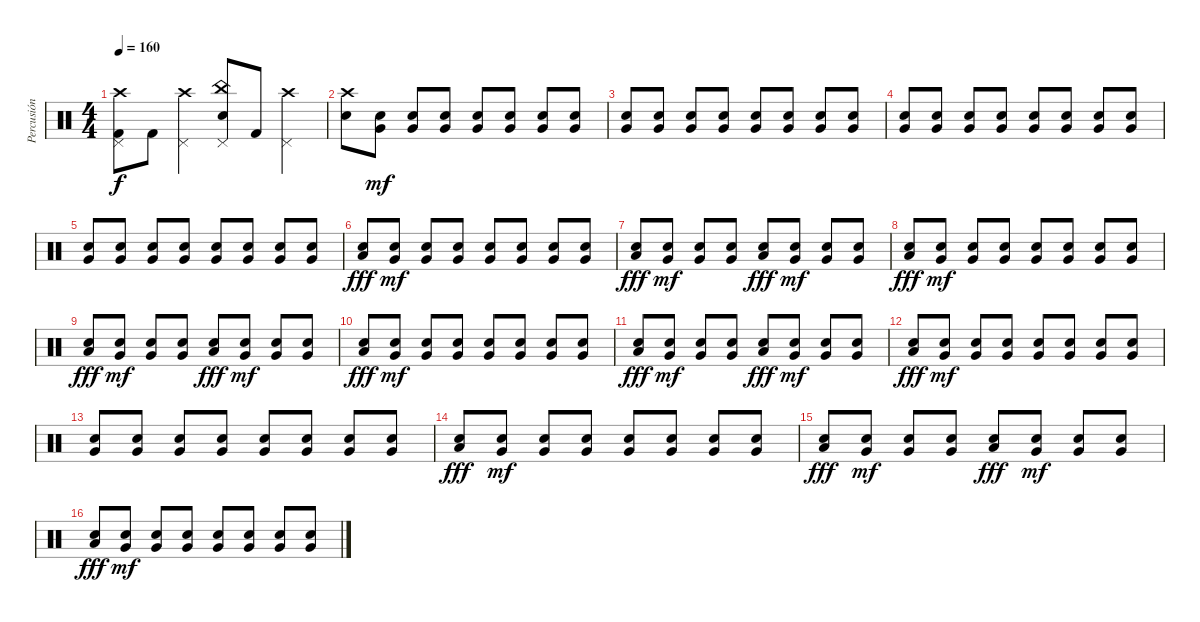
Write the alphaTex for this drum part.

\track ("Percusión" "Percusión") {instrument percussion}
\staff {score}
\articulation defaults
\ts (4 4)
\tempo 160
\clef neutral
\ks c
("Crash high (hit)" "Pedal Hi-Hat (hit)" "Kick (hit) 2").8{dy f} "Kick (hit) 2".8 ("Crash high (hit)" "Pedal Hi-Hat (hit)").4 ("China (hit)" "Snare (hit) 2" "Pedal Hi-Hat (hit)").8 "Kick (hit) 2".8 ("Crash high (hit)" "Pedal Hi-Hat (hit)").4 |
("Crash high (hit)" "Snare (hit) 2").8 ("Snare (hit) 2" "Very Low Tom (hit)").8{dy mf} ("Snare (hit) 2" "Very Low Tom (hit)").8 ("Snare (hit) 2" "Very Low Tom (hit)").8 ("Snare (hit) 2" "Very Low Tom (hit)").8 ("Snare (hit) 2" "Very Low Tom (hit)").8 ("Snare (hit) 2" "Very Low Tom (hit)").8 ("Snare (hit) 2" "Very Low Tom (hit)").8 |
("Snare (hit) 2" "Very Low Tom (hit)").8 ("Snare (hit) 2" "Very Low Tom (hit)").8 ("Snare (hit) 2" "Very Low Tom (hit)").8 ("Snare (hit) 2" "Very Low Tom (hit)").8 ("Snare (hit) 2" "Very Low Tom (hit)").8 ("Snare (hit) 2" "Very Low Tom (hit)").8 ("Snare (hit) 2" "Very Low Tom (hit)").8 ("Snare (hit) 2" "Very Low Tom (hit)").8 |
("Snare (hit) 2" "Very Low Tom (hit)").8 ("Snare (hit) 2" "Very Low Tom (hit)").8 ("Snare (hit) 2" "Very Low Tom (hit)").8 ("Snare (hit) 2" "Very Low Tom (hit)").8 ("Snare (hit) 2" "Very Low Tom (hit)").8 ("Snare (hit) 2" "Very Low Tom (hit)").8 ("Snare (hit) 2" "Very Low Tom (hit)").8 ("Snare (hit) 2" "Very Low Tom (hit)").8 |
("Snare (hit) 2" "Very Low Tom (hit)").8 ("Snare (hit) 2" "Very Low Tom (hit)").8 ("Snare (hit) 2" "Very Low Tom (hit)").8 ("Snare (hit) 2" "Very Low Tom (hit)").8 ("Snare (hit) 2" "Very Low Tom (hit)").8 ("Snare (hit) 2" "Very Low Tom (hit)").8 ("Snare (hit) 2" "Very Low Tom (hit)").8 ("Snare (hit) 2" "Very Low Tom (hit)").8 |
("Snare (hit) 2" "Low Floor Tom (hit)").8{dy fff} ("Snare (hit) 2" "Very Low Tom (hit)").8{dy mf} ("Snare (hit) 2" "Very Low Tom (hit)").8 ("Snare (hit) 2" "Very Low Tom (hit)").8 ("Snare (hit) 2" "Very Low Tom (hit)").8 ("Snare (hit) 2" "Very Low Tom (hit)").8 ("Snare (hit) 2" "Very Low Tom (hit)").8 ("Snare (hit) 2" "Very Low Tom (hit)").8 |
("Snare (hit) 2" "Low Floor Tom (hit)").8{dy fff} ("Snare (hit) 2" "Very Low Tom (hit)").8{dy mf} ("Snare (hit) 2" "Very Low Tom (hit)").8 ("Snare (hit) 2" "Very Low Tom (hit)").8 ("Snare (hit) 2" "Low Floor Tom (hit)").8{dy fff} ("Snare (hit) 2" "Very Low Tom (hit)").8{dy mf} ("Snare (hit) 2" "Very Low Tom (hit)").8 ("Snare (hit) 2" "Very Low Tom (hit)").8 |
("Snare (hit) 2" "Low Floor Tom (hit)").8{dy fff} ("Snare (hit) 2" "Very Low Tom (hit)").8{dy mf} ("Snare (hit) 2" "Very Low Tom (hit)").8 ("Snare (hit) 2" "Very Low Tom (hit)").8 ("Snare (hit) 2" "Very Low Tom (hit)").8 ("Snare (hit) 2" "Very Low Tom (hit)").8 ("Snare (hit) 2" "Very Low Tom (hit)").8 ("Snare (hit) 2" "Very Low Tom (hit)").8 |
("Snare (hit) 2" "Low Floor Tom (hit)").8{dy fff} ("Snare (hit) 2" "Very Low Tom (hit)").8{dy mf} ("Snare (hit) 2" "Very Low Tom (hit)").8 ("Snare (hit) 2" "Very Low Tom (hit)").8 ("Snare (hit) 2" "Low Floor Tom (hit)").8{dy fff} ("Snare (hit) 2" "Very Low Tom (hit)").8{dy mf} ("Snare (hit) 2" "Very Low Tom (hit)").8 ("Snare (hit) 2" "Very Low Tom (hit)").8 |
("Snare (hit) 2" "Low Floor Tom (hit)").8{dy fff} ("Snare (hit) 2" "Very Low Tom (hit)").8{dy mf} ("Snare (hit) 2" "Very Low Tom (hit)").8 ("Snare (hit) 2" "Very Low Tom (hit)").8 ("Snare (hit) 2" "Very Low Tom (hit)").8 ("Snare (hit) 2" "Very Low Tom (hit)").8 ("Snare (hit) 2" "Very Low Tom (hit)").8 ("Snare (hit) 2" "Very Low Tom (hit)").8 |
("Snare (hit) 2" "Low Floor Tom (hit)").8{dy fff} ("Snare (hit) 2" "Very Low Tom (hit)").8{dy mf} ("Snare (hit) 2" "Very Low Tom (hit)").8 ("Snare (hit) 2" "Very Low Tom (hit)").8 ("Snare (hit) 2" "Low Floor Tom (hit)").8{dy fff} ("Snare (hit) 2" "Very Low Tom (hit)").8{dy mf} ("Snare (hit) 2" "Very Low Tom (hit)").8 ("Snare (hit) 2" "Very Low Tom (hit)").8 |
("Snare (hit) 2" "Low Floor Tom (hit)").8{dy fff} ("Snare (hit) 2" "Very Low Tom (hit)").8{dy mf} ("Snare (hit) 2" "Very Low Tom (hit)").8 ("Snare (hit) 2" "Very Low Tom (hit)").8 ("Snare (hit) 2" "Very Low Tom (hit)").8 ("Snare (hit) 2" "Very Low Tom (hit)").8 ("Snare (hit) 2" "Very Low Tom (hit)").8 ("Snare (hit) 2" "Very Low Tom (hit)").8 |
("Snare (hit) 2" "Very Low Tom (hit)").8 ("Snare (hit) 2" "Very Low Tom (hit)").8 ("Snare (hit) 2" "Very Low Tom (hit)").8 ("Snare (hit) 2" "Very Low Tom (hit)").8 ("Snare (hit) 2" "Very Low Tom (hit)").8 ("Snare (hit) 2" "Very Low Tom (hit)").8 ("Snare (hit) 2" "Very Low Tom (hit)").8 ("Snare (hit) 2" "Very Low Tom (hit)").8 |
("Snare (hit) 2" "Low Floor Tom (hit)").8{dy fff} ("Snare (hit) 2" "Very Low Tom (hit)").8{dy mf} ("Snare (hit) 2" "Very Low Tom (hit)").8 ("Snare (hit) 2" "Very Low Tom (hit)").8 ("Snare (hit) 2" "Very Low Tom (hit)").8 ("Snare (hit) 2" "Very Low Tom (hit)").8 ("Snare (hit) 2" "Very Low Tom (hit)").8 ("Snare (hit) 2" "Very Low Tom (hit)").8 |
("Snare (hit) 2" "Low Floor Tom (hit)").8{dy fff} ("Snare (hit) 2" "Very Low Tom (hit)").8{dy mf} ("Snare (hit) 2" "Very Low Tom (hit)").8 ("Snare (hit) 2" "Very Low Tom (hit)").8 ("Snare (hit) 2" "Low Floor Tom (hit)").8{dy fff} ("Snare (hit) 2" "Very Low Tom (hit)").8{dy mf} ("Snare (hit) 2" "Very Low Tom (hit)").8 ("Snare (hit) 2" "Very Low Tom (hit)").8 |
("Snare (hit) 2" "Low Floor Tom (hit)").8{dy fff} ("Snare (hit) 2" "Very Low Tom (hit)").8{dy mf} ("Snare (hit) 2" "Very Low Tom (hit)").8 ("Snare (hit) 2" "Very Low Tom (hit)").8 ("Snare (hit) 2" "Very Low Tom (hit)").8 ("Snare (hit) 2" "Very Low Tom (hit)").8 ("Snare (hit) 2" "Very Low Tom (hit)").8 ("Snare (hit) 2" "Very Low Tom (hit)").8
